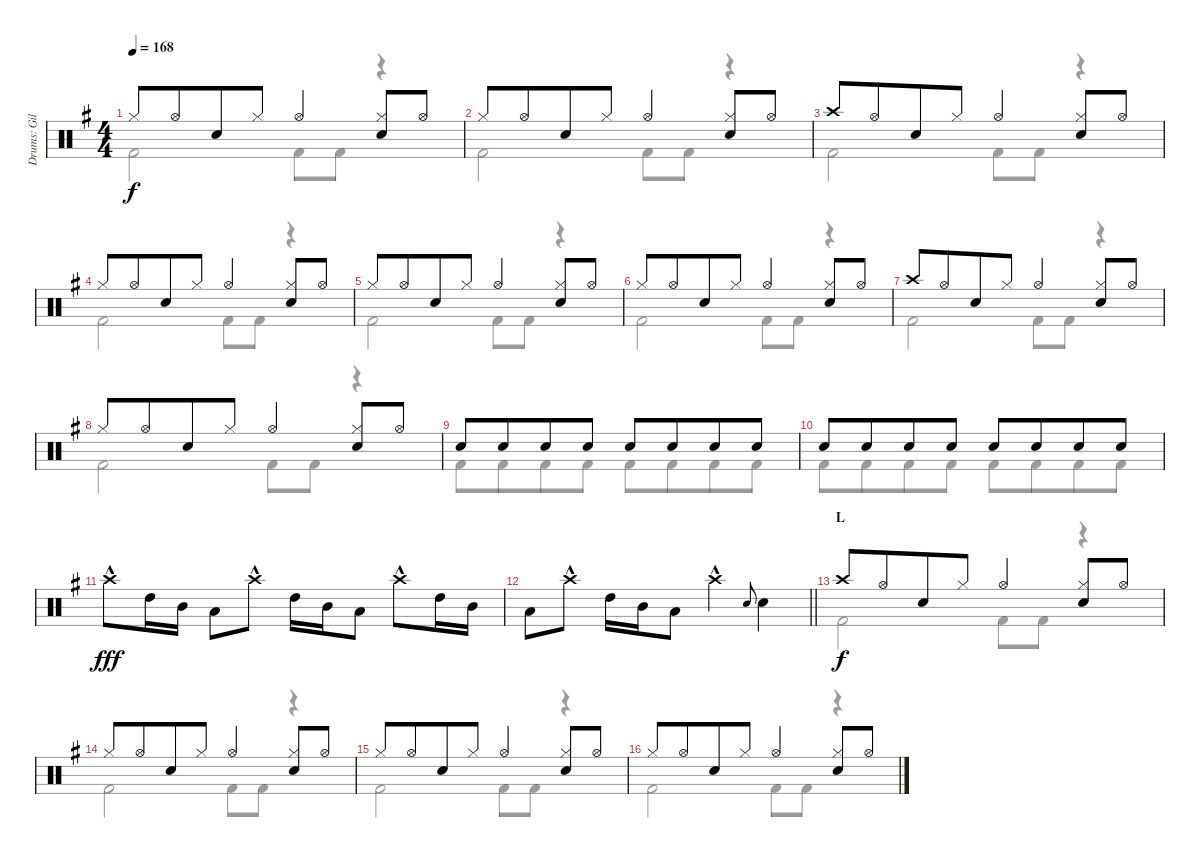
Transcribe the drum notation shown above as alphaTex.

\track ("Drums: Gil" "Drums: Gil") {instrument percussion}
\staff {score}
\articulation defaults
\voice
\ts (4 4)
\tempo 168
\clef neutral
\ks g "Hi-Hat (closed)".8{dy f} "Hi-Hat (open)".8{beam merge} "Snare (hit) 2".8 "Hi-Hat (closed)".8 "Hi-Hat (open)".4{beam merge}
("Hi-Hat (closed)" "Snare (hit) 2").8 "Hi-Hat (open)".8 |
"Hi-Hat (closed)".8 "Hi-Hat (open)".8{beam merge} "Snare (hit) 2".8 "Hi-Hat (closed)".8 "Hi-Hat (open)".4{beam merge} ("Hi-Hat (closed)" "Snare (hit) 2").8 "Hi-Hat (open)".8 |
"Crash high (hit)".8 "Hi-Hat (open)".8{beam merge} "Snare (hit) 2".8 "Hi-Hat (closed)".8 "Hi-Hat (open)".4{beam merge} ("Hi-Hat (closed)" "Snare (hit) 2").8 "Hi-Hat (open)".8 |
"Hi-Hat (closed)".8 "Hi-Hat (open)".8{beam merge} "Snare (hit) 2".8 "Hi-Hat (closed)".8 "Hi-Hat (open)".4{beam merge} ("Hi-Hat (closed)" "Snare (hit) 2").8 "Hi-Hat (open)".8 |
"Hi-Hat (closed)".8 "Hi-Hat (open)".8{beam merge} "Snare (hit) 2".8 "Hi-Hat (closed)".8 "Hi-Hat (open)".4{beam merge} ("Hi-Hat (closed)" "Snare (hit) 2").8 "Hi-Hat (open)".8 |
"Hi-Hat (closed)".8 "Hi-Hat (open)".8{beam merge} "Snare (hit) 2".8 "Hi-Hat (closed)".8 "Hi-Hat (open)".4{beam merge} ("Hi-Hat (closed)" "Snare (hit) 2").8 "Hi-Hat (open)".8 |
"Crash high (hit)".8 "Hi-Hat (open)".8{beam merge} "Snare (hit) 2".8 "Hi-Hat (closed)".8 "Hi-Hat (open)".4{beam merge} ("Hi-Hat (closed)" "Snare (hit) 2").8 "Hi-Hat (open)".8 |
"Hi-Hat (closed)".8 "Hi-Hat (open)".8{beam merge} "Snare (hit) 2".8 "Hi-Hat (closed)".8 "Hi-Hat (open)".4{beam merge} ("Hi-Hat (closed)" "Snare (hit) 2").8 "Hi-Hat (open)".8 |
"Snare (hit) 2".8 "Snare (hit) 2".8{beam merge} "Snare (hit) 2".8 "Snare (hit) 2".8 "Snare (hit) 2".8 "Snare (hit) 2".8{beam merge} "Snare (hit) 2".8 "Snare (hit) 2".8 |
"Snare (hit) 2".8 "Snare (hit) 2".8{beam merge} "Snare (hit) 2".8 "Snare (hit) 2".8 "Snare (hit) 2".8 "Snare (hit) 2".8{beam merge} "Snare (hit) 2".8 "Snare (hit) 2".8 |
"Crash high (hit)"{hac}.8{dy fff} "High Tom (hit)".16 "Mid Tom (hit)".16 "Low Tom (hit)".8 "Crash high (hit)"{hac}.8 "High Tom (hit)".16 "Mid Tom (hit)".16 "Low Tom (hit)".8 "Crash high (hit)"{hac}.8 "High Tom (hit)".16 "Mid Tom (hit)".16 |
\barLineRight lightlight "Low Tom (hit)".8 "Crash high (hit)"{hac}.8 "High Tom (hit)".16 "Mid Tom (hit)".16 "Low Tom (hit)".8 "Crash high (hit)"{hac}.4 "Electric Snare (hit)".8{gr onbeat} "Snare (hit) 2".4
|
\section ("" "L")
"Crash high (hit)".8{dy f} "Hi-Hat (open)".8{beam merge} "Snare (hit) 2".8 "Hi-Hat (closed)".8 "Hi-Hat (open)".4{beam merge} ("Hi-Hat (closed)" "Snare (hit) 2").8 "Hi-Hat (open)".8 |
"Hi-Hat (closed)".8 "Hi-Hat (open)".8{beam merge} "Snare (hit) 2".8 "Hi-Hat (closed)".8 "Hi-Hat (open)".4{beam merge} ("Hi-Hat (closed)" "Snare (hit) 2").8 "Hi-Hat (open)".8 |
"Hi-Hat (closed)".8 "Hi-Hat (open)".8{beam merge} "Snare (hit) 2".8 "Hi-Hat (closed)".8 "Hi-Hat (open)".4{beam merge} ("Hi-Hat (closed)" "Snare (hit) 2").8 "Hi-Hat (open)".8 |
"Hi-Hat (closed)".8 "Hi-Hat (open)".8{beam merge} "Snare (hit) 2".8 "Hi-Hat (closed)".8 "Hi-Hat (open)".4{beam merge} ("Hi-Hat (closed)" "Snare (hit) 2").8 "Hi-Hat (open)".8
\voice
\clef neutral
\ottava regular
\simile none
\ks g "Kick (hit) 2".2{dy f} "Kick (hit) 2".8 "Kick (hit) 2".8
r.4 |
"Kick (hit) 2".2 "Kick (hit) 2".8 "Kick (hit) 2".8 r.4 |
"Kick (hit) 2".2 "Kick (hit) 2".8 "Kick (hit) 2".8 r.4 |
"Kick (hit) 2".2 "Kick (hit) 2".8 "Kick (hit) 2".8 r.4 |
"Kick (hit) 2".2 "Kick (hit) 2".8 "Kick (hit) 2".8 r.4 |
"Kick (hit) 2".2 "Kick (hit) 2".8 "Kick (hit) 2".8 r.4 |
"Kick (hit) 2".2 "Kick (hit) 2".8 "Kick (hit) 2".8 r.4 |
"Kick (hit) 2".2 "Kick (hit) 2".8 "Kick (hit) 2".8 r.4 |
"Kick (hit) 2".8 "Kick (hit) 2".8{beam merge} "Kick (hit) 2".8 "Kick (hit) 2".8 "Kick (hit) 2".8 "Kick (hit) 2".8{beam merge} "Kick (hit) 2".8 "Kick (hit) 2".8 |
"Kick (hit) 2".8 "Kick (hit) 2".8{beam merge} "Kick (hit) 2".8 "Kick (hit) 2".8 "Kick (hit) 2".8 "Kick (hit) 2".8{beam merge} "Kick (hit) 2".8 "Kick (hit) 2".8 |
|
\barLineRight lightlight
|
"Kick (hit) 2".2 "Kick (hit) 2".8 "Kick (hit) 2".8 r.4 |
"Kick (hit) 2".2 "Kick (hit) 2".8 "Kick (hit) 2".8 r.4 |
"Kick (hit) 2".2 "Kick (hit) 2".8 "Kick (hit) 2".8 r.4 |
"Kick (hit) 2".2 "Kick (hit) 2".8 "Kick (hit) 2".8 r.4
